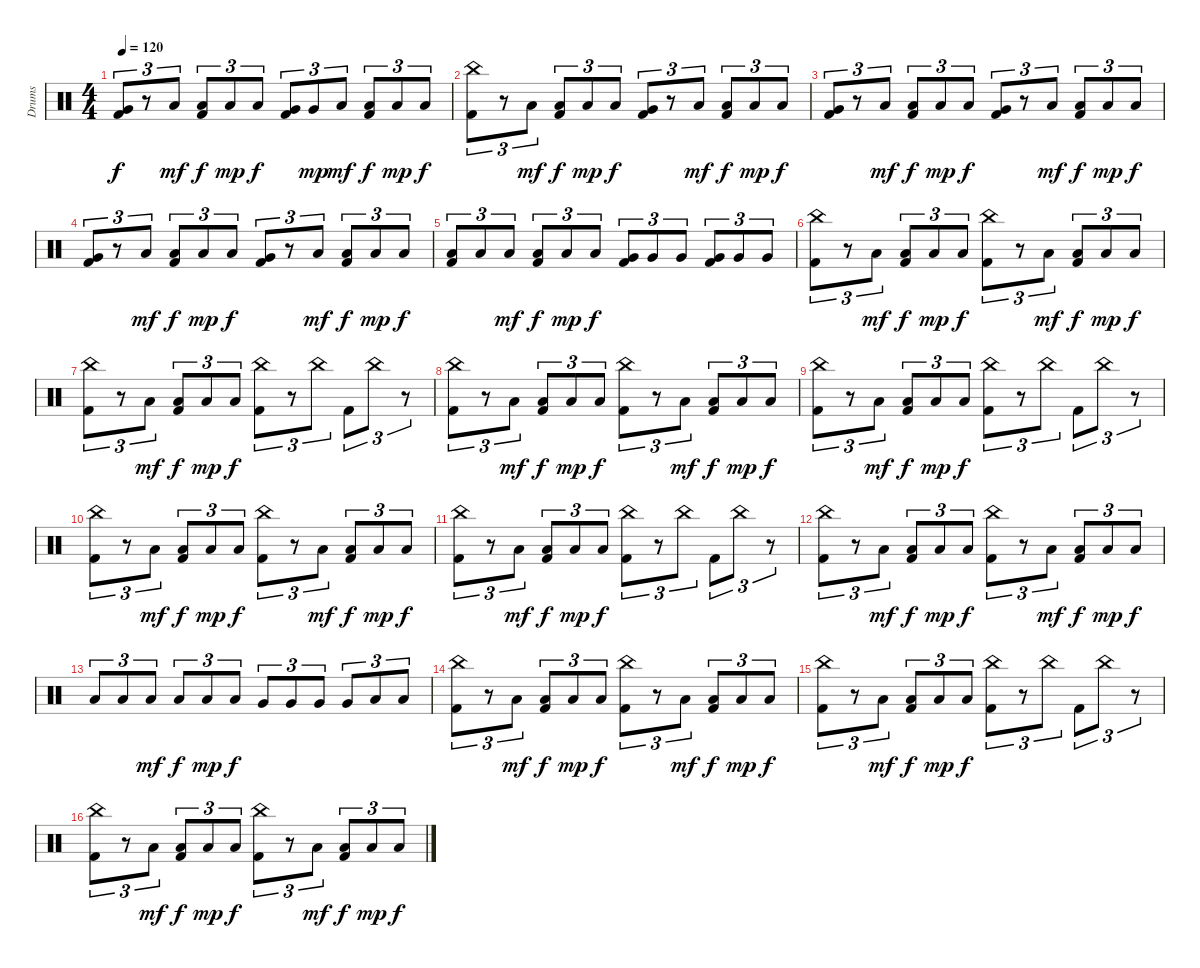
\track ("Drums" "Drums") {instrument percussion}
\staff {score}
\articulation defaults
\ts (4 4)
\tempo 120
\clef neutral
\ks c
("Kick (hit) 2" "Very Low Tom (hit)").8{tu (3 2) dy f} r.8{tu (3 2)} "Low Tom (hit)".8{tu (3 2) dy mf} ("Kick (hit) 2" "Low Tom (hit)").8{tu (3 2) dy f} "Low Tom (hit)".8{tu (3 2) dy mp} "Low Tom (hit)".8{tu (3 2) dy f} ("Kick (hit) 2" "Very Low Tom (hit)").8{tu (3 2)} "Very Low Tom (hit)".8{tu (3 2) dy mp} "Low Tom (hit)".8{tu (3 2) dy mf} ("Kick (hit) 2" "Low Tom (hit)").8{tu (3 2) dy f} "Low Tom (hit)".8{tu (3 2) dy mp} "Low Tom (hit)".8{tu (3 2) dy f} |
("Kick (hit) 2" "China (hit)").8{tu (3 2)} r.8{tu (3 2)} "Low Tom (hit)".8{tu (3 2) dy mf} ("Kick (hit) 2" "Low Tom (hit)").8{tu (3 2) dy f} "Low Tom (hit)".8{tu (3 2) dy mp} "Low Tom (hit)".8{tu (3 2) dy f} ("Kick (hit) 2" "Very Low Tom (hit)").8{tu (3 2)} r.8{tu (3 2)} "Low Tom (hit)".8{tu (3 2) dy mf} ("Kick (hit) 2" "Low Tom (hit)").8{tu (3 2) dy f} "Low Tom (hit)".8{tu (3 2) dy mp} "Low Tom (hit)".8{tu (3 2) dy f} |
("Kick (hit) 2" "Very Low Tom (hit)").8{tu (3 2)} r.8{tu (3 2)} "Low Tom (hit)".8{tu (3 2) dy mf} ("Kick (hit) 2" "Low Tom (hit)").8{tu (3 2) dy f} "Low Tom (hit)".8{tu (3 2) dy mp} "Low Tom (hit)".8{tu (3 2) dy f} ("Kick (hit) 2" "Very Low Tom (hit)").8{tu (3 2)} r.8{tu (3 2)} "Low Tom (hit)".8{tu (3 2) dy mf} ("Kick (hit) 2" "Low Tom (hit)").8{tu (3 2) dy f} "Low Tom (hit)".8{tu (3 2) dy mp} "Low Tom (hit)".8{tu (3 2) dy f} |
("Kick (hit) 2" "Very Low Tom (hit)").8{tu (3 2)} r.8{tu (3 2)} "Low Tom (hit)".8{tu (3 2) dy mf} ("Kick (hit) 2" "Low Tom (hit)").8{tu (3 2) dy f} "Low Tom (hit)".8{tu (3 2) dy mp} "Low Tom (hit)".8{tu (3 2) dy f} ("Kick (hit) 2" "Very Low Tom (hit)").8{tu (3 2)} r.8{tu (3 2)} "Low Tom (hit)".8{tu (3 2) dy mf} ("Kick (hit) 2" "Low Tom (hit)").8{tu (3 2) dy f} "Low Tom (hit)".8{tu (3 2) dy mp} "Low Tom (hit)".8{tu (3 2) dy f} |
("Kick (hit) 2" "Low Tom (hit)").8{tu (3 2)} "Low Tom (hit)".8{tu (3 2)} "Low Tom (hit)".8{tu (3 2) dy mf} ("Kick (hit) 2" "Low Tom (hit)").8{tu (3 2) dy f} "Low Tom (hit)".8{tu (3 2) dy mp} "Low Tom (hit)".8{tu (3 2) dy f} ("Kick (hit) 2" "Very Low Tom (hit)").8{tu (3 2)} "Very Low Tom (hit)".8{tu (3 2)} "Very Low Tom (hit)".8{tu (3 2)} ("Kick (hit) 2" "Very Low Tom (hit)").8{tu (3 2)} "Very Low Tom (hit)".8{tu (3 2)} "Very Low Tom (hit)".8{tu (3 2)} |
("Kick (hit) 2" "China (hit)").8{tu (3 2)} r.8{tu (3 2)} "Low Tom (hit)".8{tu (3 2) dy mf} ("Kick (hit) 2" "Low Tom (hit)").8{tu (3 2) dy f} "Low Tom (hit)".8{tu (3 2) dy mp} "Low Tom (hit)".8{tu (3 2) dy f} ("Kick (hit) 2" "China (hit)").8{tu (3 2)} r.8{tu (3 2)} "Low Tom (hit)".8{tu (3 2) dy mf} ("Kick (hit) 2" "Low Tom (hit)").8{tu (3 2) dy f} "Low Tom (hit)".8{tu (3 2) dy mp} "Low Tom (hit)".8{tu (3 2) dy f} |
("Kick (hit) 2" "China (hit)").8{tu (3 2)} r.8{tu (3 2)} "Low Tom (hit)".8{tu (3 2) dy mf} ("Kick (hit) 2" "Low Tom (hit)").8{tu (3 2) dy f} "Low Tom (hit)".8{tu (3 2) dy mp} "Low Tom (hit)".8{tu (3 2) dy f} ("Kick (hit) 2" "China (hit)").8{tu (3 2)} r.8{tu (3 2)} "China (hit)".8{tu (3 2)} "Kick (hit) 2".8{tu (3 2)} "China (hit)".8{tu (3 2)} r.8{tu (3 2)} |
("Kick (hit) 2" "China (hit)").8{tu (3 2)} r.8{tu (3 2)} "Low Tom (hit)".8{tu (3 2) dy mf} ("Kick (hit) 2" "Low Tom (hit)").8{tu (3 2) dy f} "Low Tom (hit)".8{tu (3 2) dy mp} "Low Tom (hit)".8{tu (3 2) dy f} ("Kick (hit) 2" "China (hit)").8{tu (3 2)} r.8{tu (3 2)} "Low Tom (hit)".8{tu (3 2) dy mf} ("Kick (hit) 2" "Low Tom (hit)").8{tu (3 2) dy f} "Low Tom (hit)".8{tu (3 2) dy mp} "Low Tom (hit)".8{tu (3 2) dy f} |
("Kick (hit) 2" "China (hit)").8{tu (3 2)} r.8{tu (3 2)} "Low Tom (hit)".8{tu (3 2) dy mf} ("Kick (hit) 2" "Low Tom (hit)").8{tu (3 2) dy f} "Low Tom (hit)".8{tu (3 2) dy mp} "Low Tom (hit)".8{tu (3 2) dy f} ("Kick (hit) 2" "China (hit)").8{tu (3 2)} r.8{tu (3 2)} "China (hit)".8{tu (3 2)} "Kick (hit) 2".8{tu (3 2)} "China (hit)".8{tu (3 2)} r.8{tu (3 2)} |
("Kick (hit) 2" "China (hit)").8{tu (3 2)} r.8{tu (3 2)} "Low Tom (hit)".8{tu (3 2) dy mf} ("Kick (hit) 2" "Low Tom (hit)").8{tu (3 2) dy f} "Low Tom (hit)".8{tu (3 2) dy mp} "Low Tom (hit)".8{tu (3 2) dy f} ("Kick (hit) 2" "China (hit)").8{tu (3 2)} r.8{tu (3 2)} "Low Tom (hit)".8{tu (3 2) dy mf} ("Kick (hit) 2" "Low Tom (hit)").8{tu (3 2) dy f} "Low Tom (hit)".8{tu (3 2) dy mp} "Low Tom (hit)".8{tu (3 2) dy f} |
("Kick (hit) 2" "China (hit)").8{tu (3 2)} r.8{tu (3 2)} "Low Tom (hit)".8{tu (3 2) dy mf} ("Kick (hit) 2" "Low Tom (hit)").8{tu (3 2) dy f} "Low Tom (hit)".8{tu (3 2) dy mp} "Low Tom (hit)".8{tu (3 2) dy f} ("Kick (hit) 2" "China (hit)").8{tu (3 2)} r.8{tu (3 2)} "China (hit)".8{tu (3 2)} "Kick (hit) 2".8{tu (3 2)} "China (hit)".8{tu (3 2)} r.8{tu (3 2)} |
("Kick (hit) 2" "China (hit)").8{tu (3 2)} r.8{tu (3 2)} "Low Tom (hit)".8{tu (3 2) dy mf} ("Kick (hit) 2" "Low Tom (hit)").8{tu (3 2) dy f} "Low Tom (hit)".8{tu (3 2) dy mp} "Low Tom (hit)".8{tu (3 2) dy f} ("Kick (hit) 2" "China (hit)").8{tu (3 2)} r.8{tu (3 2)} "Low Tom (hit)".8{tu (3 2) dy mf} ("Kick (hit) 2" "Low Tom (hit)").8{tu (3 2) dy f} "Low Tom (hit)".8{tu (3 2) dy mp} "Low Tom (hit)".8{tu (3 2) dy f} |
"Low Tom (hit)".8{tu (3 2)} "Low Tom (hit)".8{tu (3 2)} "Low Tom (hit)".8{tu (3 2) dy mf} "Low Tom (hit)".8{tu (3 2) dy f} "Low Tom (hit)".8{tu (3 2) dy mp} "Low Tom (hit)".8{tu (3 2) dy f} "Very Low Tom (hit)".8{tu (3 2)} "Very Low Tom (hit)".8{tu (3 2)} "Very Low Tom (hit)".8{tu (3 2)} "Very Low Tom (hit)".8{tu (3 2)} "Low Floor Tom (hit)".8{tu (3 2)} "Low Floor Tom (hit)".8{tu (3 2)} |
("Kick (hit) 2" "China (hit)").8{tu (3 2)} r.8{tu (3 2)} "Low Tom (hit)".8{tu (3 2) dy mf} ("Kick (hit) 2" "Low Tom (hit)").8{tu (3 2) dy f} "Low Tom (hit)".8{tu (3 2) dy mp} "Low Tom (hit)".8{tu (3 2) dy f} ("Kick (hit) 2" "China (hit)").8{tu (3 2)} r.8{tu (3 2)} "Low Tom (hit)".8{tu (3 2) dy mf} ("Kick (hit) 2" "Low Tom (hit)").8{tu (3 2) dy f} "Low Tom (hit)".8{tu (3 2) dy mp} "Low Tom (hit)".8{tu (3 2) dy f} |
("Kick (hit) 2" "China (hit)").8{tu (3 2)} r.8{tu (3 2)} "Low Tom (hit)".8{tu (3 2) dy mf} ("Kick (hit) 2" "Low Tom (hit)").8{tu (3 2) dy f} "Low Tom (hit)".8{tu (3 2) dy mp} "Low Tom (hit)".8{tu (3 2) dy f} ("Kick (hit) 2" "China (hit)").8{tu (3 2)} r.8{tu (3 2)} "China (hit)".8{tu (3 2)} "Kick (hit) 2".8{tu (3 2)} "China (hit)".8{tu (3 2)} r.8{tu (3 2)} |
("Kick (hit) 2" "China (hit)").8{tu (3 2)} r.8{tu (3 2)} "Low Tom (hit)".8{tu (3 2) dy mf} ("Kick (hit) 2" "Low Tom (hit)").8{tu (3 2) dy f} "Low Tom (hit)".8{tu (3 2) dy mp} "Low Tom (hit)".8{tu (3 2) dy f} ("Kick (hit) 2" "China (hit)").8{tu (3 2)} r.8{tu (3 2)} "Low Tom (hit)".8{tu (3 2) dy mf} ("Kick (hit) 2" "Low Tom (hit)").8{tu (3 2) dy f} "Low Tom (hit)".8{tu (3 2) dy mp} "Low Tom (hit)".8{tu (3 2) dy f}
